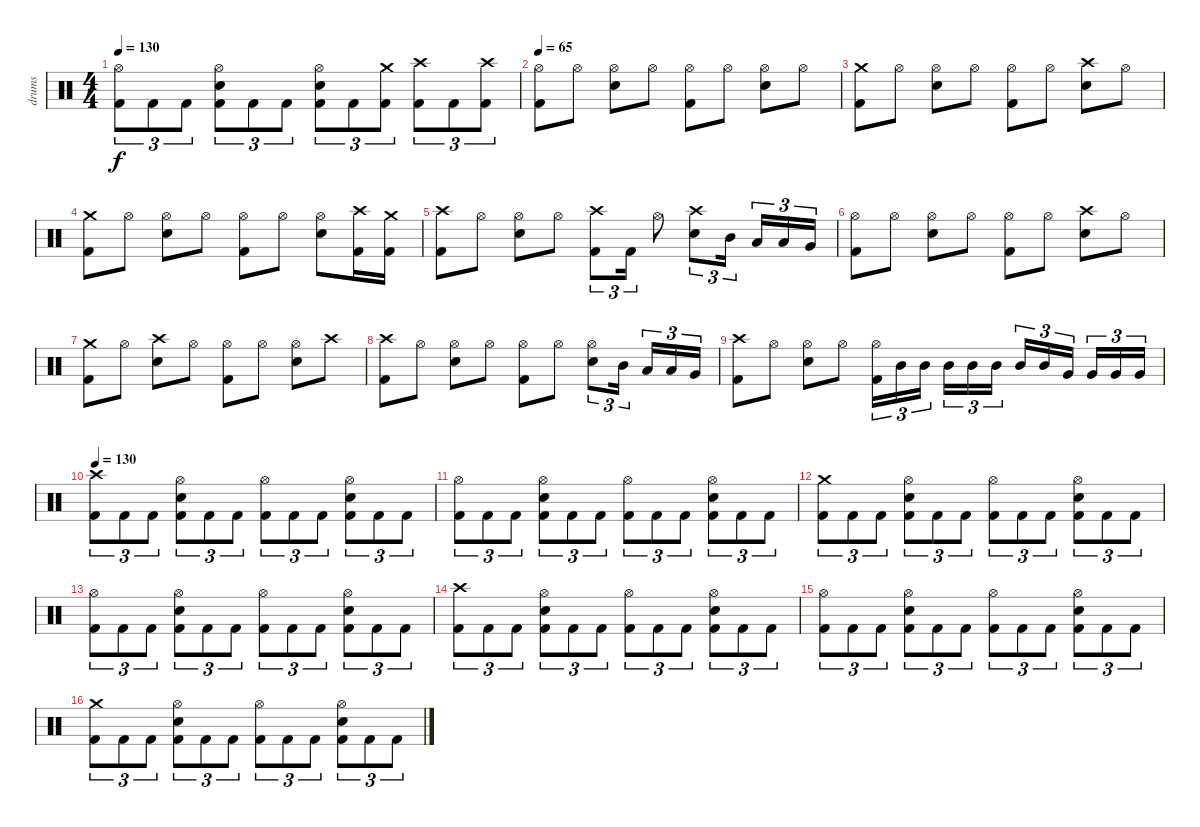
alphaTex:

\track ("drums" "drums") {instrument percussion}
\staff {score}
\articulation defaults
\ts (4 4)
\tempo 130
\clef neutral
\ks c
("Hi-Hat (open)" "Kick (hit) 2").8{tu (3 2) dy f} "Kick (hit) 2".8{tu (3 2)} "Kick (hit) 2".8{tu (3 2)} ("Hi-Hat (open)" "Electric Snare (hit)" "Kick (hit) 2").8{tu (3 2)} "Kick (hit) 2".8{tu (3 2)} "Kick (hit) 2".8{tu (3 2)} ("Hi-Hat (open)" "Electric Snare (hit)" "Kick (hit) 2").8{tu (3 2)} "Kick (hit) 2".8{tu (3 2)} ("Crash medium (hit)" "Kick (hit) 2").8{tu (3 2)} ("Crash high (hit)" "Kick (hit) 2").8{tu (3 2)} "Kick (hit) 2".8{tu (3 2)} ("Crash high (hit)" "Kick (hit) 2").8{tu (3 2)} |
\tempo 65
("Hi-Hat (open)" "Kick (hit) 2").8 "Hi-Hat (open)".8 ("Hi-Hat (open)" "Electric Snare (hit)").8 "Hi-Hat (open)".8 ("Hi-Hat (open)" "Kick (hit) 2").8 "Hi-Hat (open)".8 ("Hi-Hat (open)" "Electric Snare (hit)").8 "Hi-Hat (open)".8 |
("Crash medium (hit)" "Kick (hit) 2").8 "Hi-Hat (open)".8 ("Hi-Hat (open)" "Electric Snare (hit)").8 "Hi-Hat (open)".8 ("Hi-Hat (open)" "Kick (hit) 2").8 "Hi-Hat (open)".8 ("Crash high (hit)" "Electric Snare (hit)").8 "Hi-Hat (open)".8 |
("Crash medium (hit)" "Kick (hit) 2").8 "Hi-Hat (open)".8 ("Hi-Hat (open)" "Electric Snare (hit)").8 "Hi-Hat (open)".8 ("Hi-Hat (open)" "Kick (hit) 2").8 "Hi-Hat (open)".8 ("Hi-Hat (open)" "Electric Snare (hit)").8 ("Crash high (hit)" "Kick (hit) 2").16 ("Crash medium (hit)" "Kick (hit) 2").16 |
("Crash high (hit)" "Kick (hit) 2").8 "Hi-Hat (open)".8 ("Hi-Hat (open)" "Electric Snare (hit)").8 "Hi-Hat (open)".8 ("Crash high (hit)" "Kick (hit) 2").8{tu (3 2)} "Kick (hit) 2".16{tu (3 2)} "Hi-Hat (open)".8 ("Crash high (hit)" "Electric Snare (hit)").8{tu (3 2)} "Mid Tom (hit)".16{tu (3 2)} "Low Tom (hit)".16{tu (3 2)} "Low Tom (hit)".16{tu (3 2)} "Very Low Tom (hit)".16{tu (3 2)} |
("Hi-Hat (open)" "Kick (hit) 2").8 "Hi-Hat (open)".8 ("Hi-Hat (open)" "Electric Snare (hit)").8 "Hi-Hat (open)".8 ("Hi-Hat (open)" "Kick (hit) 2").8 "Hi-Hat (open)".8 ("Crash high (hit)" "Electric Snare (hit)").8 "Hi-Hat (open)".8 |
("Crash medium (hit)" "Kick (hit) 2").8 "Hi-Hat (open)".8 ("Crash high (hit)" "Electric Snare (hit)").8 "Hi-Hat (open)".8 ("Hi-Hat (open)" "Kick (hit) 2").8 "Hi-Hat (open)".8 ("Hi-Hat (open)" "Electric Snare (hit)").8 "Crash high (hit)".8 |
("Crash high (hit)" "Kick (hit) 2").8 "Hi-Hat (open)".8 ("Hi-Hat (open)" "Electric Snare (hit)").8 "Hi-Hat (open)".8 ("Hi-Hat (open)" "Kick (hit) 2").8 "Hi-Hat (open)".8 ("Hi-Hat (open)" "Electric Snare (hit)").8{tu (3 2)} "Mid Tom (hit)".16{tu (3 2)} "Low Tom (hit)".16{tu (3 2)} "Low Tom (hit)".16{tu (3 2)} "Very Low Tom (hit)".16{tu (3 2)} |
("Crash high (hit)" "Kick (hit) 2").8 "Hi-Hat (open)".8 ("Hi-Hat (open)" "Electric Snare (hit)").8 "Hi-Hat (open)".8 ("Hi-Hat (open)" "Kick (hit) 2").16{tu (3 2)} "Mid Tom (hit)".16{tu (3 2)} "Mid Tom (hit)".16{tu (3 2)} "Mid Tom (hit)".16{tu (3 2)} "Mid Tom (hit)".16{tu (3 2)} "Mid Tom (hit)".16{tu (3 2)} "Mid Tom (hit)".16{tu (3 2)} "Mid Tom (hit)".16{tu (3 2)} "Very Low Tom (hit)".16{tu (3 2)} "Very Low Tom (hit)".16{tu (3 2)} "Very Low Tom (hit)".16{tu (3 2)} "Very Low Tom (hit)".16{tu (3 2)} |
\tempo 130
("Crash high (hit)" "Kick (hit) 2").8{tu (3 2)} "Kick (hit) 2".8{tu (3 2)} "Kick (hit) 2".8{tu (3 2)} ("Hi-Hat (open)" "Electric Snare (hit)" "Kick (hit) 2").8{tu (3 2)} "Kick (hit) 2".8{tu (3 2)} "Kick (hit) 2".8{tu (3 2)} ("Hi-Hat (open)" "Kick (hit) 2").8{tu (3 2)} "Kick (hit) 2".8{tu (3 2)} "Kick (hit) 2".8{tu (3 2)} ("Hi-Hat (open)" "Electric Snare (hit)" "Kick (hit) 2").8{tu (3 2)} "Kick (hit) 2".8{tu (3 2)} "Kick (hit) 2".8{tu (3 2)} |
("Hi-Hat (open)" "Kick (hit) 2").8{tu (3 2)} "Kick (hit) 2".8{tu (3 2)} "Kick (hit) 2".8{tu (3 2)} ("Hi-Hat (open)" "Electric Snare (hit)" "Kick (hit) 2").8{tu (3 2)} "Kick (hit) 2".8{tu (3 2)} "Kick (hit) 2".8{tu (3 2)} ("Hi-Hat (open)" "Kick (hit) 2").8{tu (3 2)} "Kick (hit) 2".8{tu (3 2)} "Kick (hit) 2".8{tu (3 2)} ("Hi-Hat (open)" "Electric Snare (hit)" "Kick (hit) 2").8{tu (3 2)} "Kick (hit) 2".8{tu (3 2)} "Kick (hit) 2".8{tu (3 2)} |
("Crash medium (hit)" "Kick (hit) 2").8{tu (3 2)} "Kick (hit) 2".8{tu (3 2)} "Kick (hit) 2".8{tu (3 2)} ("Hi-Hat (open)" "Electric Snare (hit)" "Kick (hit) 2").8{tu (3 2)} "Kick (hit) 2".8{tu (3 2)} "Kick (hit) 2".8{tu (3 2)} ("Hi-Hat (open)" "Kick (hit) 2").8{tu (3 2)} "Kick (hit) 2".8{tu (3 2)} "Kick (hit) 2".8{tu (3 2)} ("Hi-Hat (open)" "Electric Snare (hit)" "Kick (hit) 2").8{tu (3 2)} "Kick (hit) 2".8{tu (3 2)} "Kick (hit) 2".8{tu (3 2)} |
("Hi-Hat (open)" "Kick (hit) 2").8{tu (3 2)} "Kick (hit) 2".8{tu (3 2)} "Kick (hit) 2".8{tu (3 2)} ("Hi-Hat (open)" "Electric Snare (hit)" "Kick (hit) 2").8{tu (3 2)} "Kick (hit) 2".8{tu (3 2)} "Kick (hit) 2".8{tu (3 2)} ("Hi-Hat (open)" "Kick (hit) 2").8{tu (3 2)} "Kick (hit) 2".8{tu (3 2)} "Kick (hit) 2".8{tu (3 2)} ("Hi-Hat (open)" "Electric Snare (hit)" "Kick (hit) 2").8{tu (3 2)} "Kick (hit) 2".8{tu (3 2)} "Kick (hit) 2".8{tu (3 2)} |
("Crash high (hit)" "Kick (hit) 2").8{tu (3 2)} "Kick (hit) 2".8{tu (3 2)} "Kick (hit) 2".8{tu (3 2)} ("Hi-Hat (open)" "Electric Snare (hit)" "Kick (hit) 2").8{tu (3 2)} "Kick (hit) 2".8{tu (3 2)} "Kick (hit) 2".8{tu (3 2)} ("Hi-Hat (open)" "Kick (hit) 2").8{tu (3 2)} "Kick (hit) 2".8{tu (3 2)} "Kick (hit) 2".8{tu (3 2)} ("Hi-Hat (open)" "Electric Snare (hit)" "Kick (hit) 2").8{tu (3 2)} "Kick (hit) 2".8{tu (3 2)} "Kick (hit) 2".8{tu (3 2)} |
("Hi-Hat (open)" "Kick (hit) 2").8{tu (3 2)} "Kick (hit) 2".8{tu (3 2)} "Kick (hit) 2".8{tu (3 2)} ("Hi-Hat (open)" "Electric Snare (hit)" "Kick (hit) 2").8{tu (3 2)} "Kick (hit) 2".8{tu (3 2)} "Kick (hit) 2".8{tu (3 2)} ("Hi-Hat (open)" "Kick (hit) 2").8{tu (3 2)} "Kick (hit) 2".8{tu (3 2)} "Kick (hit) 2".8{tu (3 2)} ("Hi-Hat (open)" "Electric Snare (hit)" "Kick (hit) 2").8{tu (3 2)} "Kick (hit) 2".8{tu (3 2)} "Kick (hit) 2".8{tu (3 2)} |
("Crash medium (hit)" "Kick (hit) 2").8{tu (3 2)} "Kick (hit) 2".8{tu (3 2)} "Kick (hit) 2".8{tu (3 2)} ("Hi-Hat (open)" "Electric Snare (hit)" "Kick (hit) 2").8{tu (3 2)} "Kick (hit) 2".8{tu (3 2)} "Kick (hit) 2".8{tu (3 2)} ("Hi-Hat (open)" "Kick (hit) 2").8{tu (3 2)} "Kick (hit) 2".8{tu (3 2)} "Kick (hit) 2".8{tu (3 2)} ("Hi-Hat (open)" "Electric Snare (hit)" "Kick (hit) 2").8{tu (3 2)} "Kick (hit) 2".8{tu (3 2)} "Kick (hit) 2".8{tu (3 2)}
